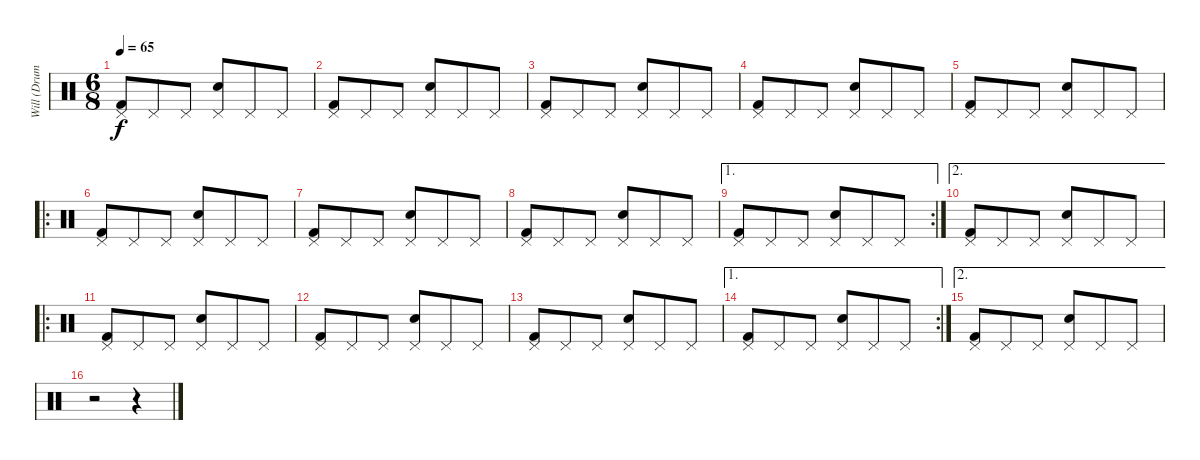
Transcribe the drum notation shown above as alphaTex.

\track ("Will (Drums)" "Will (Drum") {instrument percussion}
\staff {score}
\articulation defaults
\ts (6 8)
\tempo 65
\clef neutral
\ks c
("Pedal Hi-Hat (hit)" "Kick (hit) 2").8{dy f} "Pedal Hi-Hat (hit)".8 "Pedal Hi-Hat (hit)".8 ("Pedal Hi-Hat (hit)" "Snare (hit) 2").8 "Pedal Hi-Hat (hit)".8 "Pedal Hi-Hat (hit)".8 |
("Pedal Hi-Hat (hit)" "Kick (hit) 2").8 "Pedal Hi-Hat (hit)".8 "Pedal Hi-Hat (hit)".8 ("Pedal Hi-Hat (hit)" "Snare (hit) 2").8 "Pedal Hi-Hat (hit)".8 "Pedal Hi-Hat (hit)".8 |
("Pedal Hi-Hat (hit)" "Kick (hit) 2").8 "Pedal Hi-Hat (hit)".8 "Pedal Hi-Hat (hit)".8 ("Pedal Hi-Hat (hit)" "Snare (hit) 2").8 "Pedal Hi-Hat (hit)".8 "Pedal Hi-Hat (hit)".8 |
("Pedal Hi-Hat (hit)" "Kick (hit) 2").8 "Pedal Hi-Hat (hit)".8 "Pedal Hi-Hat (hit)".8 ("Pedal Hi-Hat (hit)" "Snare (hit) 2").8 "Pedal Hi-Hat (hit)".8 "Pedal Hi-Hat (hit)".8 |
("Pedal Hi-Hat (hit)" "Kick (hit) 2").8 "Pedal Hi-Hat (hit)".8 "Pedal Hi-Hat (hit)".8 ("Pedal Hi-Hat (hit)" "Snare (hit) 2").8 "Pedal Hi-Hat (hit)".8 "Pedal Hi-Hat (hit)".8 |
\ro
("Pedal Hi-Hat (hit)" "Kick (hit) 2").8 "Pedal Hi-Hat (hit)".8 "Pedal Hi-Hat (hit)".8 ("Pedal Hi-Hat (hit)" "Snare (hit) 2").8 "Pedal Hi-Hat (hit)".8 "Pedal Hi-Hat (hit)".8 |
("Pedal Hi-Hat (hit)" "Kick (hit) 2").8 "Pedal Hi-Hat (hit)".8 "Pedal Hi-Hat (hit)".8 ("Pedal Hi-Hat (hit)" "Snare (hit) 2").8 "Pedal Hi-Hat (hit)".8 "Pedal Hi-Hat (hit)".8 |
("Pedal Hi-Hat (hit)" "Kick (hit) 2").8 "Pedal Hi-Hat (hit)".8 "Pedal Hi-Hat (hit)".8 ("Pedal Hi-Hat (hit)" "Snare (hit) 2").8 "Pedal Hi-Hat (hit)".8 "Pedal Hi-Hat (hit)".8 |
\ae 1
\rc 2
("Pedal Hi-Hat (hit)" "Kick (hit) 2").8 "Pedal Hi-Hat (hit)".8 "Pedal Hi-Hat (hit)".8 ("Pedal Hi-Hat (hit)" "Snare (hit) 2").8 "Pedal Hi-Hat (hit)".8 "Pedal Hi-Hat (hit)".8 |
\ae 2
("Pedal Hi-Hat (hit)" "Kick (hit) 2").8 "Pedal Hi-Hat (hit)".8 "Pedal Hi-Hat (hit)".8 ("Pedal Hi-Hat (hit)" "Snare (hit) 2").8 "Pedal Hi-Hat (hit)".8 "Pedal Hi-Hat (hit)".8 |
\ro
("Pedal Hi-Hat (hit)" "Kick (hit) 2").8 "Pedal Hi-Hat (hit)".8 "Pedal Hi-Hat (hit)".8 ("Pedal Hi-Hat (hit)" "Snare (hit) 2").8 "Pedal Hi-Hat (hit)".8 "Pedal Hi-Hat (hit)".8 |
("Pedal Hi-Hat (hit)" "Kick (hit) 2").8 "Pedal Hi-Hat (hit)".8 "Pedal Hi-Hat (hit)".8 ("Pedal Hi-Hat (hit)" "Snare (hit) 2").8 "Pedal Hi-Hat (hit)".8 "Pedal Hi-Hat (hit)".8 |
("Pedal Hi-Hat (hit)" "Kick (hit) 2").8 "Pedal Hi-Hat (hit)".8 "Pedal Hi-Hat (hit)".8 ("Pedal Hi-Hat (hit)" "Snare (hit) 2").8 "Pedal Hi-Hat (hit)".8 "Pedal Hi-Hat (hit)".8 |
\ae 1
\rc 2
("Pedal Hi-Hat (hit)" "Kick (hit) 2").8 "Pedal Hi-Hat (hit)".8 "Pedal Hi-Hat (hit)".8 ("Pedal Hi-Hat (hit)" "Snare (hit) 2").8 "Pedal Hi-Hat (hit)".8 "Pedal Hi-Hat (hit)".8 |
\ae 2
("Pedal Hi-Hat (hit)" "Kick (hit) 2").8 "Pedal Hi-Hat (hit)".8 "Pedal Hi-Hat (hit)".8 ("Pedal Hi-Hat (hit)" "Snare (hit) 2").8 "Pedal Hi-Hat (hit)".8 "Pedal Hi-Hat (hit)".8 |
r.2 r.4
